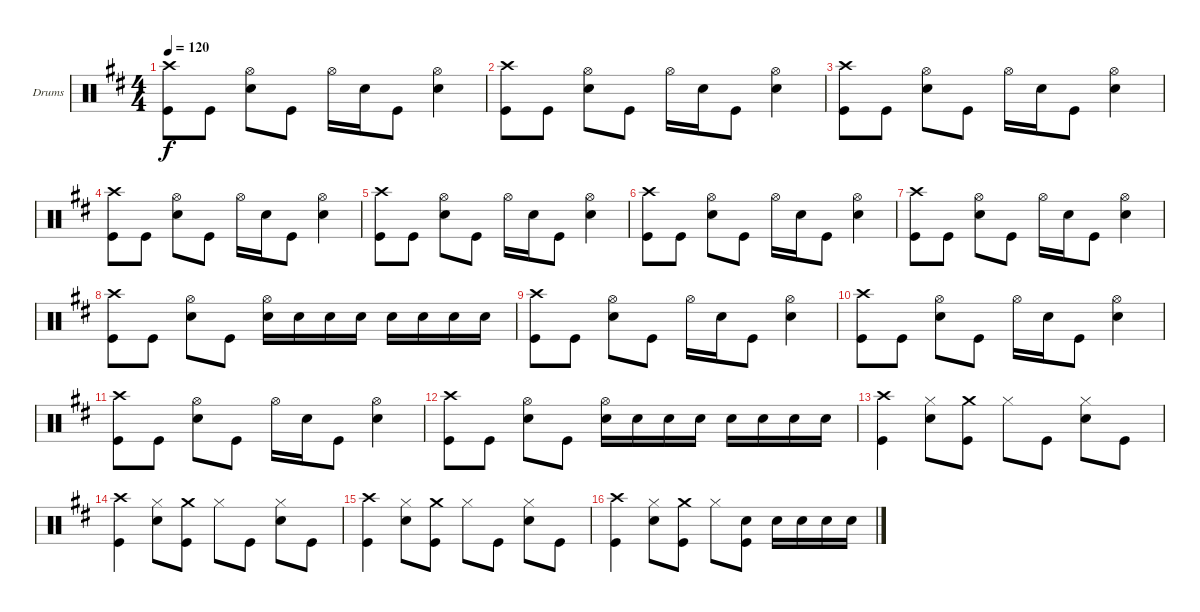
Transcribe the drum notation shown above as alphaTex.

\defaultSystemsLayout 4
\bracketExtendMode groupsimilarinstruments
\firstSystemTrackNameOrientation horizontal
\otherSystemsTrackNameOrientation horizontal
\track ("Drumkit" "Drums") {instrument percussion}
\staff {score}
\articulation defaults
\ts (4 4)
\tempo 120
\clef neutral
\scale
0.949559
\ks d
("Crash high (hit)" "Kick (hit)").8{dy f} "Kick (hit)".8 ("Hi-Hat (open)" "Snare (hit) 2").8 "Kick (hit)".8 "Hi-Hat (open)".16 "Snare (hit) 2".16 "Kick (hit)".8 ("Hi-Hat (open)" "Snare (hit) 2").4 |
\scale
1.10088 ("Crash high (hit)" "Kick (hit)").8 "Kick (hit)".8 ("Hi-Hat (open)" "Snare (hit) 2").8 "Kick (hit)".8 "Hi-Hat (open)".16 "Snare (hit) 2".16 "Kick (hit)".8 ("Hi-Hat (open)" "Snare (hit) 2").4 |
\scale
0.949559 ("Crash high (hit)" "Kick (hit)").8 "Kick (hit)".8 ("Hi-Hat (open)" "Snare (hit) 2").8 "Kick (hit)".8 "Hi-Hat (open)".16 "Snare (hit) 2".16 "Kick (hit)".8 ("Hi-Hat (open)" "Snare (hit) 2").4 |
\scale
0.949559 ("Crash high (hit)" "Kick (hit)").8 "Kick (hit)".8 ("Hi-Hat (open)" "Snare (hit) 2").8 "Kick (hit)".8 "Hi-Hat (open)".16 "Snare (hit) 2".16 "Kick (hit)".8 ("Hi-Hat (open)" "Snare (hit) 2").4 |
\scale
1.10088 ("Crash high (hit)" "Kick (hit)").8 "Kick (hit)".8 ("Hi-Hat (open)" "Snare (hit) 2").8 "Kick (hit)".8 "Hi-Hat (open)".16 "Snare (hit) 2".16 "Kick (hit)".8 ("Hi-Hat (open)" "Snare (hit) 2").4 |
\scale
0.949559 ("Crash high (hit)" "Kick (hit)").8 "Kick (hit)".8 ("Hi-Hat (open)" "Snare (hit) 2").8 "Kick (hit)".8 "Hi-Hat (open)".16 "Snare (hit) 2".16 "Kick (hit)".8 ("Hi-Hat (open)" "Snare (hit) 2").4 |
\scale
0.949559 ("Crash high (hit)" "Kick (hit)").8 "Kick (hit)".8 ("Hi-Hat (open)" "Snare (hit) 2").8 "Kick (hit)".8 "Hi-Hat (open)".16 "Snare (hit) 2".16 "Kick (hit)".8 ("Hi-Hat (open)" "Snare (hit) 2").4 |
\scale
1.10088 ("Crash high (hit)" "Kick (hit)").8 "Kick (hit)".8 ("Hi-Hat (open)" "Snare (hit) 2").8 "Kick (hit)".8 ("Hi-Hat (open)" "Snare (hit) 2").16 "Snare (hit) 2".16 "Snare (hit) 2".16 "Snare (hit) 2".16 "Snare (hit) 2".16 "Snare (hit) 2".16 "Snare (hit) 2".16 "Snare (hit) 2".16 |
\scale
0.949559 ("Crash high (hit)" "Kick (hit)").8 "Kick (hit)".8 ("Hi-Hat (open)" "Snare (hit) 2").8 "Kick (hit)".8 "Hi-Hat (open)".16 "Snare (hit) 2".16 "Kick (hit)".8 ("Hi-Hat (open)" "Snare (hit) 2").4 |
\scale
0.949559 ("Crash high (hit)" "Kick (hit)").8 "Kick (hit)".8 ("Hi-Hat (open)" "Snare (hit) 2").8 "Kick (hit)".8 "Hi-Hat (open)".16 "Snare (hit) 2".16 "Kick (hit)".8 ("Hi-Hat (open)" "Snare (hit) 2").4 |
\scale
1.10088 ("Crash high (hit)" "Kick (hit)").8 "Kick (hit)".8 ("Hi-Hat (open)" "Snare (hit) 2").8 "Kick (hit)".8 "Hi-Hat (open)".16 "Snare (hit) 2".16 "Kick (hit)".8 ("Hi-Hat (open)" "Snare (hit) 2").4 |
\scale
0.949559 ("Crash high (hit)" "Kick (hit)").8 "Kick (hit)".8 ("Hi-Hat (open)" "Snare (hit) 2").8 "Kick (hit)".8 ("Hi-Hat (open)" "Snare (hit) 2").16 "Snare (hit) 2".16 "Snare (hit) 2".16 "Snare (hit) 2".16 "Snare (hit) 2".16 "Snare (hit) 2".16 "Snare (hit) 2".16 "Snare (hit) 2".16 |
\scale
0.949559 ("Crash high (hit)" "Kick (hit)").4 ("Hi-Hat (closed)" "Snare (hit) 2").8 ("Crash medium (hit)" "Kick (hit)").8 "Hi-Hat (closed)".8 "Kick (hit)".8 ("Hi-Hat (closed)" "Snare (hit) 2").8 "Kick (hit)".8 |
\scale
1.10088 ("Crash high (hit)" "Kick (hit)").4 ("Hi-Hat (closed)" "Snare (hit) 2").8 ("Crash medium (hit)" "Kick (hit)").8 "Hi-Hat (closed)".8 "Kick (hit)".8 ("Hi-Hat (closed)" "Snare (hit) 2").8 "Kick (hit)".8 |
\scale
0.949559 ("Crash high (hit)" "Kick (hit)").4 ("Hi-Hat (closed)" "Snare (hit) 2").8 ("Crash medium (hit)" "Kick (hit)").8 "Hi-Hat (closed)".8 "Kick (hit)".8 ("Hi-Hat (closed)" "Snare (hit) 2").8 "Kick (hit)".8 |
\scale
0.949559 ("Crash high (hit)" "Kick (hit)").4 ("Hi-Hat (closed)" "Snare (hit) 2").8 ("Crash medium (hit)" "Kick (hit)").8 "Hi-Hat (closed)".8 ("Snare (hit) 2" "Kick (hit)").8 "Snare (hit) 2".16 "Snare (hit) 2".16 "Snare (hit) 2".16 "Snare (hit) 2".16
